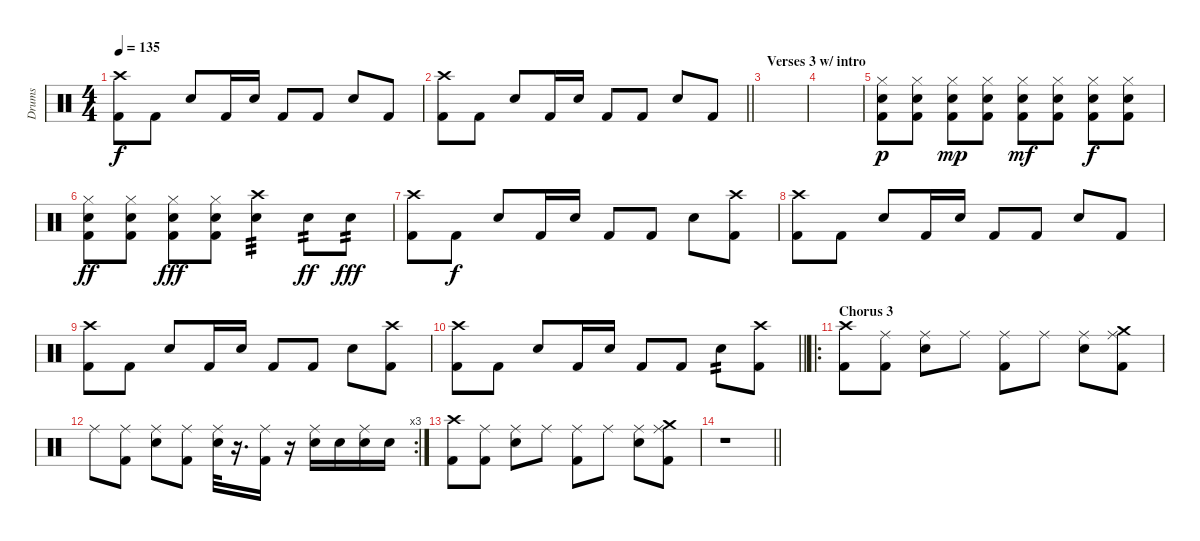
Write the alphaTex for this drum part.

\track ("Drums" "Drums") {instrument percussion}
\staff {score}
\articulation defaults
\ts (4 4)
\tempo 135
\clef neutral
\ks c
("Kick (hit) 2" "Crash high (hit)").8{dy f} "Kick (hit) 2".8 "Electric Snare (hit)".8 "Kick (hit) 2".16 "Electric Snare (hit)".16 "Kick (hit) 2".8 "Kick (hit) 2".8 "Electric Snare (hit)".8 "Kick (hit) 2".8 |
\barLineRight lightlight
("Kick (hit) 2" "Crash high (hit)").8 "Kick (hit) 2".8 "Electric Snare (hit)".8 "Kick (hit) 2".16 "Electric Snare (hit)".16 "Kick (hit) 2".8 "Kick (hit) 2".8 "Electric Snare (hit)".8 "Kick (hit) 2".8 |
\section ("" "Verses 3 w/ intro")
|
|
("Kick (hit) 2" "Electric Snare (hit)" "Hi-Hat (closed)").8{dy p} ("Kick (hit) 2" "Electric Snare (hit)" "Hi-Hat (closed)").8 ("Kick (hit) 2" "Electric Snare (hit)" "Hi-Hat (closed)").8{dy mp} ("Kick (hit) 2" "Electric Snare (hit)" "Hi-Hat (closed)").8 ("Kick (hit) 2" "Electric Snare (hit)" "Hi-Hat (closed)").8{dy mf} ("Kick (hit) 2" "Electric Snare (hit)" "Hi-Hat (closed)").8 ("Kick (hit) 2" "Electric Snare (hit)" "Hi-Hat (closed)").8{dy f} ("Kick (hit) 2" "Electric Snare (hit)" "Hi-Hat (closed)").8 |
("Kick (hit) 2" "Electric Snare (hit)" "Hi-Hat (closed)").8{dy ff} ("Kick (hit) 2" "Electric Snare (hit)" "Hi-Hat (closed)").8 ("Kick (hit) 2" "Electric Snare (hit)" "Hi-Hat (closed)").8{dy fff} ("Kick (hit) 2" "Electric Snare (hit)" "Hi-Hat (closed)").8 ("Electric Snare (hit)" "Crash high (hit)").4{tp 3} "Electric Snare (hit)".8{tp 2 dy ff} "Electric Snare (hit)".8{tp 2 dy fff} |
("Kick (hit) 2" "Crash high (hit)").8 "Kick (hit) 2".8{dy f} "Electric Snare (hit)".8 "Kick (hit) 2".16 "Electric Snare (hit)".16 "Kick (hit) 2".8 "Kick (hit) 2".8 "Electric Snare (hit)".8 ("Kick (hit) 2" "Crash high (hit)").8 |
("Kick (hit) 2" "Crash high (hit)").8 "Kick (hit) 2".8 "Electric Snare (hit)".8 "Kick (hit) 2".16 "Electric Snare (hit)".16 "Kick (hit) 2".8 "Kick (hit) 2".8 "Electric Snare (hit)".8 "Kick (hit) 2".8 |
("Kick (hit) 2" "Crash high (hit)").8 "Kick (hit) 2".8 "Electric Snare (hit)".8 "Kick (hit) 2".16 "Electric Snare (hit)".16 "Kick (hit) 2".8 "Kick (hit) 2".8 "Electric Snare (hit)".8 ("Kick (hit) 2" "Crash high (hit)").8 |
\barLineRight lightlight
("Kick (hit) 2" "Crash high (hit)").8 "Kick (hit) 2".8 "Electric Snare (hit)".8 "Kick (hit) 2".16 "Electric Snare (hit)".16 "Kick (hit) 2".8 "Kick (hit) 2".8 "Electric Snare (hit)".8{tp 2} ("Kick (hit) 2" "Crash high (hit)").8 |
\ro
\section ("" "Chorus 3")
("Crash high (hit)" "Kick (hit) 2").8 ("Ride (middle)" "Kick (hit) 2").8 ("Ride (middle)" "Electric Snare (hit)").8 "Ride (middle)".8 ("Ride (middle)" "Kick (hit) 2").8 "Ride (middle)".8 ("Ride (middle)" "Electric Snare (hit)").8 ("Crash medium (hit)" "Ride (middle)" "Kick (hit) 2").8 |
\rc 3 "Ride (middle)".8
("Ride (middle)" "Kick (hit) 2").8 ("Ride (middle)" "Electric Snare (hit)").8 ("Ride (middle)" "Kick (hit) 2").8 ("Ride (middle)" "Electric Snare (hit)").32 r.16{d} ("Ride (middle)" "Kick (hit) 2").16 r.16 ("Ride (middle)" "Electric Snare (hit)").16 "Electric Snare (hit)".16 ("Ride (middle)" "Electric Snare (hit)").16 "Electric Snare (hit)".16 |
("Crash high (hit)" "Kick (hit) 2").8 ("Ride (middle)" "Kick (hit) 2").8 ("Ride (middle)" "Electric Snare (hit)").8 "Ride (middle)".8 ("Ride (middle)" "Kick (hit) 2").8 "Ride (middle)".8 ("Ride (middle)" "Electric Snare (hit)").8 ("Crash medium (hit)" "Ride (middle)" "Kick (hit) 2").8 |
\barLineRight lightlight
r.1
